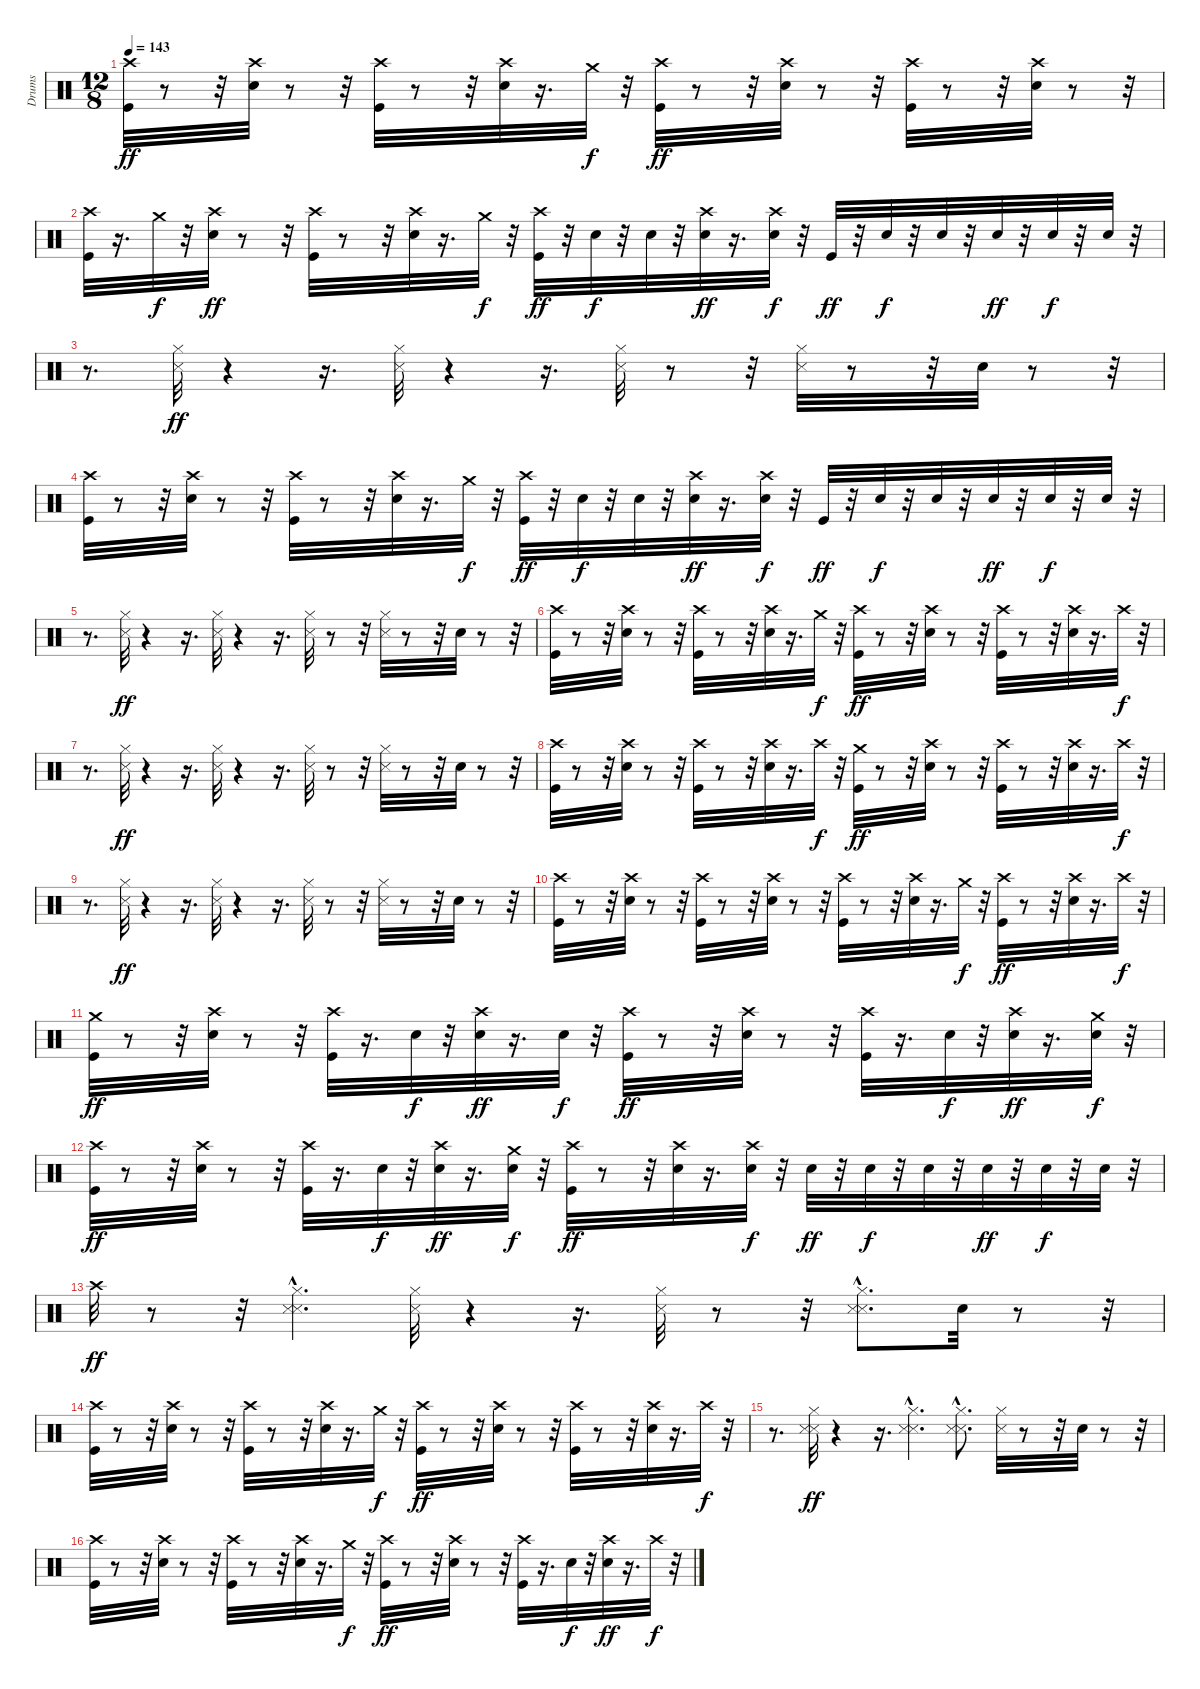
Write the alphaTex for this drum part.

\track ("Drums" "Drums") {instrument percussion}
\staff {score}
\articulation defaults
\ts (12 8)
\tempo 143
\clef neutral
\ks c
("Crash high (hit)" "Kick (hit)").32{dy ff} r.8 r.32 ("Crash high (hit)" "Snare (hit) 2").32 r.8 r.32 ("Crash high (hit)" "Kick (hit)").32 r.8 r.32 ("Crash high (hit)" "Snare (hit) 2").32 r.16{d} "Crash medium (hit)".32{dy f} r.32 ("Crash high (hit)" "Kick (hit)").32{dy ff} r.8 r.32 ("Crash high (hit)" "Snare (hit) 2").32 r.8 r.32 ("Crash high (hit)" "Kick (hit)").32 r.8 r.32 ("Crash high (hit)" "Snare (hit) 2").32 r.8 r.32 |
("Crash high (hit)" "Kick (hit)").32 r.16{d} "Crash medium (hit)".32{dy f} r.32 ("Crash high (hit)" "Snare (hit) 2").32{dy ff} r.8 r.32 ("Crash high (hit)" "Kick (hit)").32 r.8 r.32 ("Crash high (hit)" "Snare (hit) 2").32 r.16{d} "Crash medium (hit)".32{dy f} r.32 ("Crash high (hit)" "Kick (hit)").32{dy ff} r.32 "Snare (hit) 2".32{dy f} r.32 "Snare (hit) 2".32 r.32 ("Crash high (hit)" "Snare (hit) 2").32{dy ff} r.16{d} ("Snare (hit) 2" "Crash high (hit)").32{dy f} r.32 "Kick (hit)".32{dy ff} r.32 "Snare (hit) 2".32{dy f} r.32 "Snare (hit) 2".32 r.32 "Snare (hit) 2".32{dy ff} r.32 "Snare (hit) 2".32{dy f} r.32 "Snare (hit) 2".32 r.32 |
r.8{d} ("Hi-Hat (closed)" "Metronome (hit)").32{dy ff} r.4 r.16{d} ("Hi-Hat (closed)" "Metronome (hit)").32 r.4 r.16{d} ("Hi-Hat (closed)" "Metronome (hit)").32 r.8 r.32 ("Hi-Hat (closed)" "Metronome (hit)").32 r.8 r.32 "Snare (hit) 2".32 r.8 r.32 |
("Crash high (hit)" "Kick (hit)").32 r.8 r.32 ("Crash high (hit)" "Snare (hit) 2").32 r.8 r.32 ("Crash high (hit)" "Kick (hit)").32 r.8 r.32 ("Crash high (hit)" "Snare (hit) 2").32 r.16{d} "Crash medium (hit)".32{dy f} r.32 ("Crash high (hit)" "Kick (hit)").32{dy ff} r.32 "Snare (hit) 2".32{dy f} r.32 "Snare (hit) 2".32 r.32 ("Crash high (hit)" "Snare (hit) 2").32{dy ff} r.16{d} ("Snare (hit) 2" "Crash high (hit)").32{dy f} r.32 "Kick (hit)".32{dy ff} r.32 "Snare (hit) 2".32{dy f} r.32 "Snare (hit) 2".32 r.32 "Snare (hit) 2".32{dy ff} r.32 "Snare (hit) 2".32{dy f} r.32 "Snare (hit) 2".32 r.32 |
r.8{d} ("Hi-Hat (closed)" "Metronome (hit)").32{dy ff} r.4 r.16{d} ("Hi-Hat (closed)" "Metronome (hit)").32 r.4 r.16{d} ("Hi-Hat (closed)" "Metronome (hit)").32 r.8 r.32 ("Hi-Hat (closed)" "Metronome (hit)").32 r.8 r.32 "Snare (hit) 2".32 r.8 r.32 |
("Crash high (hit)" "Kick (hit)").32 r.8 r.32 ("Crash high (hit)" "Snare (hit) 2").32 r.8 r.32 ("Crash high (hit)" "Kick (hit)").32 r.8 r.32 ("Crash high (hit)" "Snare (hit) 2").32 r.16{d} "Crash medium (hit)".32{dy f} r.32 ("Crash high (hit)" "Kick (hit)").32{dy ff} r.8 r.32 ("Crash high (hit)" "Snare (hit) 2").32 r.8 r.32 ("Crash high (hit)" "Kick (hit)").32 r.8 r.32 ("Crash high (hit)" "Snare (hit) 2").32 r.16{d} "Crash high (hit)".32{dy f} r.32 |
r.8{d} ("Hi-Hat (closed)" "Metronome (hit)").32{dy ff} r.4 r.16{d} ("Hi-Hat (closed)" "Metronome (hit)").32 r.4 r.16{d} ("Metronome (hit)" "Hi-Hat (closed)").32 r.8 r.32 ("Hi-Hat (closed)" "Metronome (hit)").32 r.8 r.32 "Snare (hit) 2".32 r.8 r.32 |
("Crash high (hit)" "Kick (hit)").32 r.8 r.32 ("Crash high (hit)" "Snare (hit) 2").32 r.8 r.32 ("Crash high (hit)" "Kick (hit)").32 r.8 r.32 ("Crash high (hit)" "Snare (hit) 2").32 r.16{d} "Crash high (hit)".32{dy f} r.32 ("Crash medium (hit)" "Kick (hit)").32{dy ff} r.8 r.32 ("Crash high (hit)" "Snare (hit) 2").32 r.8 r.32 ("Crash high (hit)" "Kick (hit)").32 r.8 r.32 ("Crash high (hit)" "Snare (hit) 2").32 r.16{d} "Crash high (hit)".32{dy f} r.32 |
r.8{d} ("Metronome (hit)" "Hi-Hat (closed)").32{dy ff} r.4 r.16{d} ("Hi-Hat (closed)" "Metronome (hit)").32 r.4 r.16{d} ("Metronome (hit)" "Hi-Hat (closed)").32 r.8 r.32 ("Metronome (hit)" "Hi-Hat (closed)").32 r.8 r.32 "Snare (hit) 2".32 r.8 r.32 |
("Crash high (hit)" "Kick (hit)").32 r.8 r.32 ("Crash high (hit)" "Snare (hit) 2").32 r.8 r.32 ("Crash high (hit)" "Kick (hit)").32 r.8 r.32 ("Crash high (hit)" "Snare (hit) 2").32 r.8 r.32 ("Crash high (hit)" "Kick (hit)").32 r.8 r.32 ("Crash high (hit)" "Snare (hit) 2").32 r.16{d} "Crash medium (hit)".32{dy f} r.32 ("Crash high (hit)" "Kick (hit)").32{dy ff} r.8 r.32 ("Crash high (hit)" "Snare (hit) 2").32 r.16{d} "Crash high (hit)".32{dy f} r.32 |
("Crash medium (hit)" "Kick (hit)").32{dy ff} r.8 r.32 ("Crash high (hit)" "Snare (hit) 2").32 r.8 r.32 ("Crash high (hit)" "Kick (hit)").32 r.16{d} "Snare (hit) 2".32{dy f} r.32 ("Crash high (hit)" "Snare (hit) 2").32{dy ff} r.16{d} "Snare (hit) 2".32{dy f} r.32 ("Crash high (hit)" "Kick (hit)").32{dy ff} r.8 r.32 ("Crash high (hit)" "Snare (hit) 2").32 r.8 r.32 ("Crash high (hit)" "Kick (hit)").32 r.16{d} "Snare (hit) 2".32{dy f} r.32 ("Crash high (hit)" "Snare (hit) 2").32{dy ff} r.16{d} ("Crash medium (hit)" "Snare (hit) 2").32{dy f} r.32 |
("Crash high (hit)" "Kick (hit)").32{dy ff} r.8 r.32 ("Crash high (hit)" "Snare (hit) 2").32 r.8 r.32 ("Crash high (hit)" "Kick (hit)").32 r.16{d} "Snare (hit) 2".32{dy f} r.32 ("Crash high (hit)" "Snare (hit) 2").32{dy ff} r.16{d} ("Crash medium (hit)" "Snare (hit) 2").32{dy f} r.32 ("Kick (hit)" "Crash high (hit)").32{dy ff} r.8 r.32 ("Snare (hit) 2" "Crash high (hit)").32 r.16{d} ("Electric Snare (hit)" "Crash high (hit)").32{dy f} r.32 "Snare (hit) 2".32{dy ff} r.32 "Snare (hit) 2".32{dy f} r.32 "Snare (hit) 2".32 r.32 "Snare (hit) 2".32{dy ff} r.32 "Snare (hit) 2".32{dy f} r.32 "Snare (hit) 2".32 r.32 |
"Crash high (hit)".32{dy ff} r.8 r.32 ("Metronome (hit)"{hac} "Metronome (hit)" "Hi-Hat (closed)").4{d} ("Metronome (hit)" "Hi-Hat (closed)").32 r.4 r.16{d} ("Metronome (hit)" "Hi-Hat (closed)").32 r.8 r.32 ("Metronome (hit)"{hac} "Hi-Hat (closed)" "Metronome (hit)").8{d} "Snare (hit) 2".32 r.8 r.32 |
("Crash high (hit)" "Kick (hit)").32 r.8 r.32 ("Crash high (hit)" "Snare (hit) 2").32 r.8 r.32 ("Crash high (hit)" "Kick (hit)").32 r.8 r.32 ("Crash high (hit)" "Snare (hit) 2").32 r.16{d} "Crash medium (hit)".32{dy f} r.32 ("Crash high (hit)" "Kick (hit)").32{dy ff} r.8 r.32 ("Crash high (hit)" "Snare (hit) 2").32 r.8 r.32 ("Crash high (hit)" "Kick (hit)").32 r.8 r.32 ("Crash high (hit)" "Snare (hit) 2").32 r.16{d} "Crash high (hit)".32{dy f} r.32 |
r.8{d} ("Metronome (hit)" "Hi-Hat (closed)" "Metronome (hit)").32{dy ff} r.4 r.16{d} ("Metronome (hit)"{hac} "Hi-Hat (closed)" "Metronome (hit)").4{d} ("Metronome (hit)"{hac} "Metronome (hit)" "Hi-Hat (closed)").8{d} ("Metronome (hit)" "Hi-Hat (closed)").32 r.8 r.32 "Snare (hit) 2".32 r.8 r.32 |
("Crash high (hit)" "Kick (hit)").32 r.8 r.32 ("Crash high (hit)" "Snare (hit) 2").32 r.8 r.32 ("Crash high (hit)" "Kick (hit)").32 r.8 r.32 ("Crash high (hit)" "Snare (hit) 2").32 r.16{d} "Crash medium (hit)".32{dy f} r.32 ("Crash high (hit)" "Kick (hit)").32{dy ff} r.8 r.32 ("Crash high (hit)" "Snare (hit) 2").32 r.8 r.32 ("Crash high (hit)" "Kick (hit)").32 r.16{d} "Snare (hit) 2".32{dy f} r.32 ("Crash high (hit)" "Snare (hit) 2").32{dy ff} r.16{d} "Crash high (hit)".32{dy f} r.32
